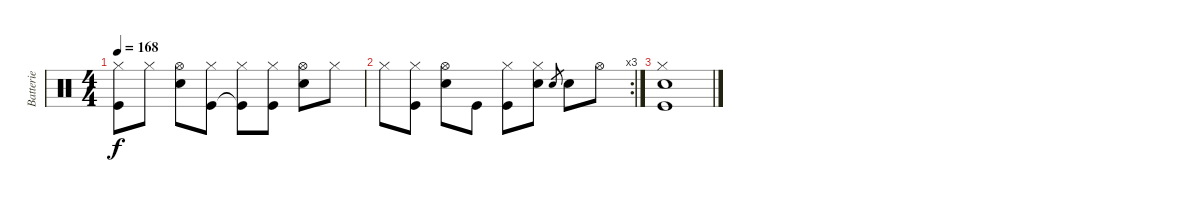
\track ("Batterie" "Batterie") {instrument percussion}
\staff {score}
\articulation defaults
\ts (4 4)
\tempo 168
\clef neutral
\ks c
("Hi-Hat (closed)" "Kick (hit)").8{dy f} "Hi-Hat (closed)".8 ("Hi-Hat (open)" "Snare (hit) 2").8 ("Hi-Hat (closed)" "Kick (hit)").8 ("Hi-Hat (closed)" "Kick (hit)"{t}).8 ("Hi-Hat (closed)" "Kick (hit)").8 ("Hi-Hat (open)" "Snare (hit) 2").8 "Hi-Hat (closed)".8 |
\rc 3 "Hi-Hat (closed)".8
("Hi-Hat (closed)" "Kick (hit)").8 ("Hi-Hat (open)" "Snare (hit) 2").8 "Kick (hit)".8 ("Hi-Hat (closed)" "Kick (hit)").8 ("Hi-Hat (closed)" "Snare (hit) 2").8 "Snare (hit) 2".8{gr} "Snare (hit) 2".8 "Hi-Hat (open)".8 |
("Hi-Hat (closed)" "Snare (hit) 2" "Kick (hit)").1
